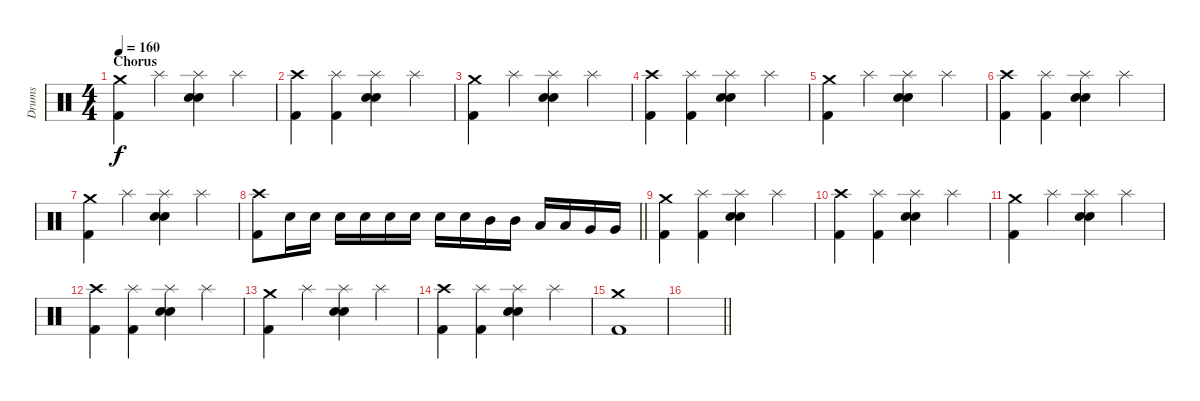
\track ("Drums" "Drums") {instrument percussion}
\staff {score}
\articulation defaults
\ts (4 4)
\section ("" "Chorus")
\tempo 160
\clef neutral
\ks c
("Crash medium (hit)" "Kick (hit) 2").4{dy f} "Splash (hit)".4 ("Splash (hit)" "Electric Snare (hit)" "Snare (hit) 2").4 "Splash (hit)".4 |
("Crash high (hit)" "Kick (hit) 2").4 ("Splash (hit)" "Kick (hit) 2").4 ("Splash (hit)" "Electric Snare (hit)" "Snare (hit) 2").4 "Splash (hit)".4 |
("Crash medium (hit)" "Kick (hit) 2").4 "Splash (hit)".4 ("Splash (hit)" "Electric Snare (hit)" "Snare (hit) 2").4 "Splash (hit)".4 |
("Crash high (hit)" "Kick (hit) 2").4 ("Splash (hit)" "Kick (hit) 2").4 ("Splash (hit)" "Electric Snare (hit)" "Snare (hit) 2").4 "Splash (hit)".4 |
("Crash medium (hit)" "Kick (hit) 2").4 "Splash (hit)".4 ("Splash (hit)" "Electric Snare (hit)" "Snare (hit) 2").4 "Splash (hit)".4 |
("Crash high (hit)" "Kick (hit) 2").4 ("Splash (hit)" "Kick (hit) 2").4 ("Splash (hit)" "Electric Snare (hit)" "Snare (hit) 2").4 "Splash (hit)".4 |
("Crash medium (hit)" "Kick (hit) 2").4 "Splash (hit)".4 ("Splash (hit)" "Electric Snare (hit)" "Snare (hit) 2").4 "Splash (hit)".4 |
\barLineRight lightlight
("Crash high (hit)" "Kick (hit) 2").8 "Electric Snare (hit)".16 "Electric Snare (hit)".16 "Electric Snare (hit)".16 "Electric Snare (hit)".16 "Electric Snare (hit)".16 "Electric Snare (hit)".16 "Electric Snare (hit)".16 "Electric Snare (hit)".16 "Mid Tom (hit)".16 "Mid Tom (hit)".16 "Low Tom (hit)".16 "Low Tom (hit)".16 "Very Low Tom (hit)".16 "Very Low Tom (hit)".16 |
("Crash medium (hit)" "Kick (hit) 2").4 ("Splash (hit)" "Kick (hit) 2").4 ("Splash (hit)" "Electric Snare (hit)" "Snare (hit) 2").4 "Splash (hit)".4 |
("Crash high (hit)" "Kick (hit) 2").4 ("Splash (hit)" "Kick (hit) 2").4 ("Splash (hit)" "Electric Snare (hit)" "Snare (hit) 2").4 "Splash (hit)".4 |
("Crash medium (hit)" "Kick (hit) 2").4 "Splash (hit)".4 ("Splash (hit)" "Electric Snare (hit)" "Snare (hit) 2").4 "Splash (hit)".4 |
("Crash high (hit)" "Kick (hit) 2").4 ("Splash (hit)" "Kick (hit) 2").4 ("Splash (hit)" "Electric Snare (hit)" "Snare (hit) 2").4 "Splash (hit)".4 |
("Crash medium (hit)" "Kick (hit) 2").4 "Splash (hit)".4 ("Splash (hit)" "Electric Snare (hit)" "Snare (hit) 2").4 "Splash (hit)".4 |
("Crash high (hit)" "Kick (hit) 2").4 ("Splash (hit)" "Kick (hit) 2").4 ("Splash (hit)" "Electric Snare (hit)" "Snare (hit) 2").4 "Splash (hit)".4 |
("Crash medium (hit)" "Kick (hit) 2").1 |
\barLineRight lightlight
